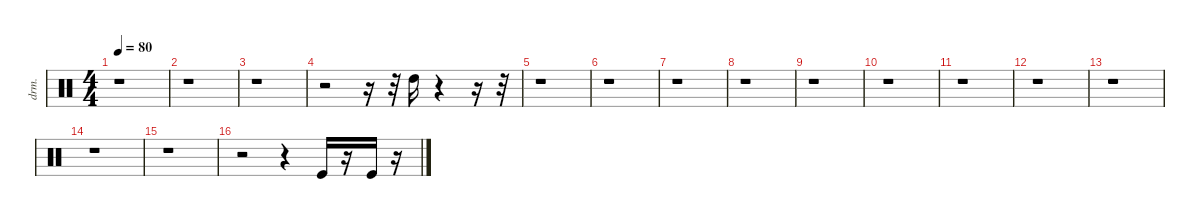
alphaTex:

\defaultSystemsLayout 4
\hideDynamics
\bracketExtendMode nobrackets
\track ("Percussions" "drm.") {instrument percussion}
\staff {score}
\articulation defaults
\ts (4 4)
\tempo 80
\clef neutral
\ks c
r.1{dy f beam Down} |
r.1{beam Down} |
r.1{beam Down} |
r.2{beam Down} r.16{beam Down} r.32{beam Down} "High Tom (hit)".16{beam Down} r.4{beam Down} r.16{beam Down} r.32{beam Down} |
r.1{beam Down} |
r.1{beam Down} |
r.1{beam Down} |
r.1{beam Down} |
r.1{beam Down} |
r.1{beam Down} |
r.1{beam Down} |
r.1{beam Down} |
r.1{beam Down} |
r.1{beam Down} |
r.1{beam Down} |
r.2{beam Down} r.4{beam Down} "Kick (hit)".16{beam Up} r.16{beam Up} "Kick (hit)".16{beam Up} r.16{beam Down}
